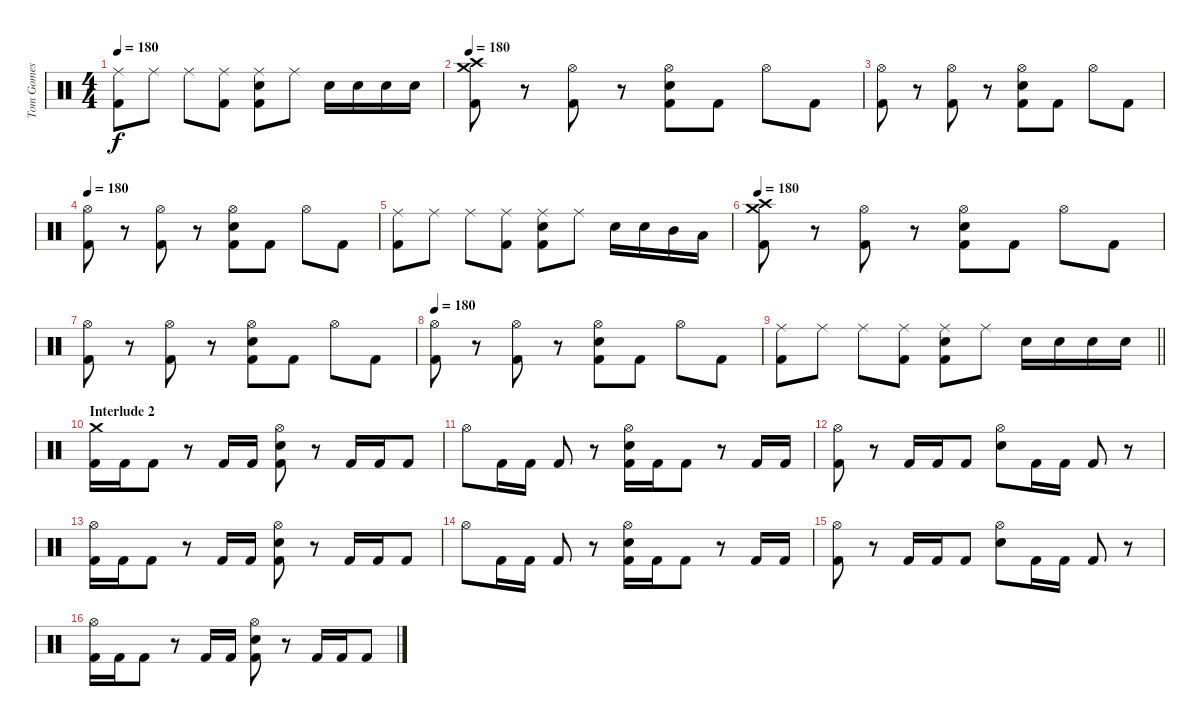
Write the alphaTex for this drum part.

\track ("Tom Gomes" "Tom Gomes") {instrument percussion}
\staff {score}
\articulation defaults
\ts (4 4)
\tempo 180
\clef neutral
\ks c
("Ride (middle)" "Kick (hit) 2").8{dy f} "Ride (middle)".8 "Ride (middle)".8 ("Ride (middle)" "Kick (hit) 2").8 ("Ride (middle)" "Snare (hit) 2" "Kick (hit) 2").8 "Ride (middle)".8 "Snare (hit) 2".16 "Snare (hit) 2".16 "Snare (hit) 2".16 "Snare (hit) 2".16 |
\tempo 180
("Crash high (hit)" "Crash medium (hit)" "Kick (hit) 2").8 r.8 ("Hi-Hat (open)" "Kick (hit) 2").8 r.8 ("Hi-Hat (open)" "Snare (hit) 2" "Kick (hit) 2").8 "Kick (hit) 2".8 "Hi-Hat (open)".8 "Kick (hit) 2".8 |
("Hi-Hat (open)" "Kick (hit) 2").8 r.8 ("Hi-Hat (open)" "Kick (hit) 2").8 r.8 ("Hi-Hat (open)" "Snare (hit) 2" "Kick (hit) 2").8 "Kick (hit) 2".8 "Hi-Hat (open)".8 "Kick (hit) 2".8 |
\tempo 180
("Hi-Hat (open)" "Kick (hit) 2").8 r.8 ("Hi-Hat (open)" "Kick (hit) 2").8 r.8 ("Hi-Hat (open)" "Snare (hit) 2" "Kick (hit) 2").8 "Kick (hit) 2".8 "Hi-Hat (open)".8 "Kick (hit) 2".8 |
("Ride (middle)" "Kick (hit) 2").8 "Ride (middle)".8 "Ride (middle)".8 ("Ride (middle)" "Kick (hit) 2").8 ("Ride (middle)" "Snare (hit) 2" "Kick (hit) 2").8 "Ride (middle)".8 "Snare (hit) 2".16 "Snare (hit) 2".16 "Mid Tom (hit)".16 "Low Tom (hit)".16 |
\tempo 180
("Crash high (hit)" "Crash medium (hit)" "Kick (hit) 2").8 r.8 ("Hi-Hat (open)" "Kick (hit) 2").8 r.8 ("Hi-Hat (open)" "Snare (hit) 2" "Kick (hit) 2").8 "Kick (hit) 2".8 "Hi-Hat (open)".8 "Kick (hit) 2".8 |
("Hi-Hat (open)" "Kick (hit) 2").8 r.8 ("Hi-Hat (open)" "Kick (hit) 2").8 r.8 ("Hi-Hat (open)" "Snare (hit) 2" "Kick (hit) 2").8 "Kick (hit) 2".8 "Hi-Hat (open)".8 "Kick (hit) 2".8 |
\tempo 180
("Hi-Hat (open)" "Kick (hit) 2").8 r.8 ("Hi-Hat (open)" "Kick (hit) 2").8 r.8 ("Hi-Hat (open)" "Snare (hit) 2" "Kick (hit) 2").8 "Kick (hit) 2".8 "Hi-Hat (open)".8 "Kick (hit) 2".8 |
\barLineRight lightlight
("Ride (middle)" "Kick (hit) 2").8 "Ride (middle)".8 "Ride (middle)".8 ("Ride (middle)" "Kick (hit) 2").8 ("Ride (middle)" "Snare (hit) 2" "Kick (hit) 2").8 "Ride (middle)".8 "Snare (hit) 2".16 "Snare (hit) 2".16 "Snare (hit) 2".16 "Snare (hit) 2".16 |
\section ("" "Interlude 2")
("Crash medium (hit)" "Kick (hit) 2").16 "Kick (hit) 2".16 "Kick (hit) 2".8 r.8 "Kick (hit) 2".16 "Kick (hit) 2".16 ("Hi-Hat (open)" "Snare (hit) 2" "Kick (hit) 2").8 r.8 "Kick (hit) 2".16 "Kick (hit) 2".16 "Kick (hit) 2".8 |
"Hi-Hat (open)".8 "Kick (hit) 2".16 "Kick (hit) 2".16 "Kick (hit) 2".8 r.8 ("Hi-Hat (open)" "Snare (hit) 2" "Kick (hit) 2").16 "Kick (hit) 2".16 "Kick (hit) 2".8 r.8 "Kick (hit) 2".16 "Kick (hit) 2".16 |
("Hi-Hat (open)" "Kick (hit) 2").8 r.8 "Kick (hit) 2".16 "Kick (hit) 2".16 "Kick (hit) 2".8 ("Hi-Hat (open)" "Snare (hit) 2").8 "Kick (hit) 2".16 "Kick (hit) 2".16 "Kick (hit) 2".8 r.8 |
("Hi-Hat (open)" "Kick (hit) 2").16 "Kick (hit) 2".16 "Kick (hit) 2".8 r.8 "Kick (hit) 2".16 "Kick (hit) 2".16 ("Hi-Hat (open)" "Snare (hit) 2" "Kick (hit) 2").8 r.8 "Kick (hit) 2".16 "Kick (hit) 2".16 "Kick (hit) 2".8 |
"Hi-Hat (open)".8 "Kick (hit) 2".16 "Kick (hit) 2".16 "Kick (hit) 2".8 r.8 ("Hi-Hat (open)" "Snare (hit) 2" "Kick (hit) 2").16 "Kick (hit) 2".16 "Kick (hit) 2".8 r.8 "Kick (hit) 2".16 "Kick (hit) 2".16 |
("Hi-Hat (open)" "Kick (hit) 2").8 r.8 "Kick (hit) 2".16 "Kick (hit) 2".16 "Kick (hit) 2".8 ("Hi-Hat (open)" "Snare (hit) 2").8 "Kick (hit) 2".16 "Kick (hit) 2".16 "Kick (hit) 2".8 r.8 |
("Hi-Hat (open)" "Kick (hit) 2").16 "Kick (hit) 2".16 "Kick (hit) 2".8 r.8 "Kick (hit) 2".16 "Kick (hit) 2".16 ("Hi-Hat (open)" "Snare (hit) 2" "Kick (hit) 2").8 r.8 "Kick (hit) 2".16 "Kick (hit) 2".16 "Kick (hit) 2".8
